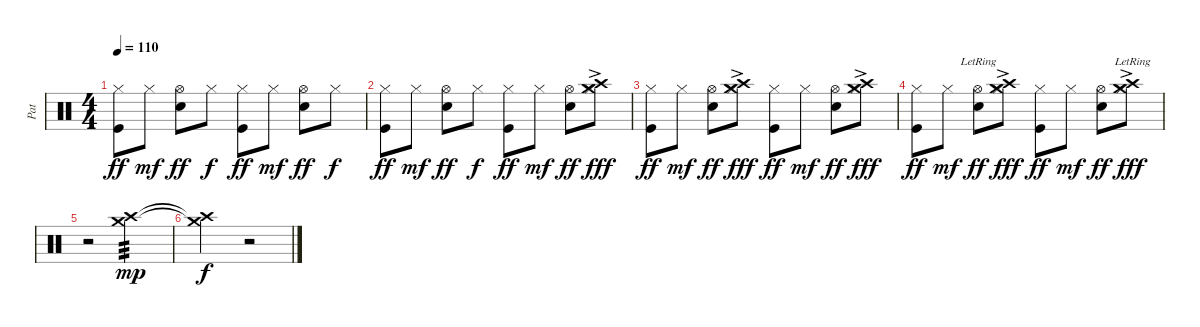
\track ("Pat" "Pat") {instrument percussion}
\staff {score}
\articulation defaults
\ts (4 4)
\tempo 110
\clef neutral
\ks c
("Hi-Hat (closed)" "Kick (hit)").8{dy ff} "Hi-Hat (closed)".8{dy mf} ("Hi-Hat (open)" "Snare (hit) 2").8{dy ff} "Hi-Hat (closed)".8{dy f} ("Hi-Hat (closed)" "Kick (hit)").8{dy ff} "Hi-Hat (closed)".8{dy mf} ("Hi-Hat (open)" "Snare (hit) 2").8{dy ff} "Hi-Hat (closed)".8{dy f} |
("Hi-Hat (closed)" "Kick (hit)").8{dy ff} "Hi-Hat (closed)".8{dy mf} ("Hi-Hat (open)" "Snare (hit) 2").8{dy ff} "Hi-Hat (closed)".8{dy f} ("Hi-Hat (closed)" "Kick (hit)").8{dy ff} "Hi-Hat (closed)".8{dy mf} ("Hi-Hat (open)" "Snare (hit) 2").8{dy ff} ("Hi-Hat (closed)" "Crash medium (hit)"{ac} "Crash high (hit)"{ac}).8{dy fff} |
("Hi-Hat (closed)" "Kick (hit)").8{dy ff} "Hi-Hat (closed)".8{dy mf} ("Hi-Hat (open)" "Snare (hit) 2").8{dy ff} ("Hi-Hat (closed)" "Crash medium (hit)"{ac} "Crash high (hit)"{ac}).8{dy fff} ("Hi-Hat (closed)" "Kick (hit)").8{dy ff} "Hi-Hat (closed)".8{dy mf} ("Hi-Hat (open)" "Snare (hit) 2").8{dy ff} ("Hi-Hat (closed)" "Crash medium (hit)"{ac} "Crash high (hit)"{ac}).8{dy fff} |
("Hi-Hat (closed)" "Kick (hit)").8{dy ff} "Hi-Hat (closed)".8{dy mf} ("Hi-Hat (open)"{lr} "Snare (hit) 2").8{dy ff} ("Hi-Hat (closed)" "Crash medium (hit)"{ac lr} "Crash high (hit)"{ac lr}).8{dy fff} ("Hi-Hat (closed)" "Kick (hit)").8{dy ff} "Hi-Hat (closed)".8{dy mf} ("Hi-Hat (open)" "Snare (hit) 2").8{dy ff} ("Hi-Hat (closed)" "Crash medium (hit)"{ac lr} "Crash high (hit)"{ac lr}).8{dy fff} |
r.2 ("Crash medium (hit)" "Crash high (hit)").2{tp 3 dy mp} |
("Crash medium (hit)"{t} "Crash high (hit)"{t}).2{dy f} r.2
